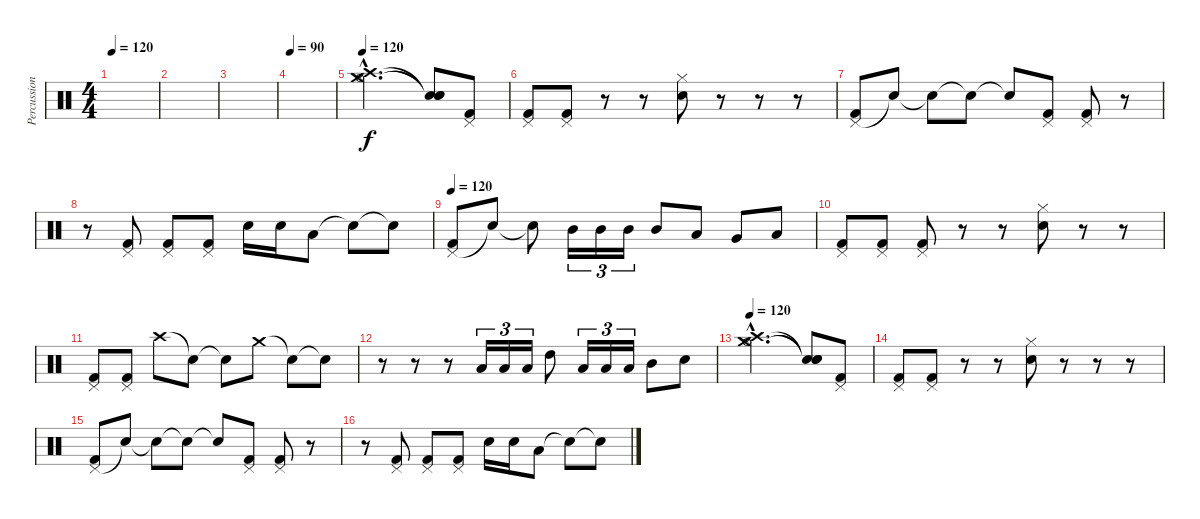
\track ("Percussion" "Percussion") {instrument percussion}
\staff {score}
\articulation defaults
\ts (4 4)
\tempo 120
\clef neutral
\ks c
|
|
|
\tempo 90
|
\tempo 120
("Crash medium (hit)"{hac} "Crash high (hit)"{hac} "Hi-Hat (open)"{hac}).2{d dy f volume 13 balance 8} ("Snare (hit)"{t} "Snare (hit)"{t} "Snare (hit)"{t}).8 ("Pedal Hi-Hat (hit)" "Kick (hit) 2").8 |
("Pedal Hi-Hat (hit)" "Kick (hit) 2").8 ("Pedal Hi-Hat (hit)" "Kick (hit) 2").8 r.8 r.8 ("Hi-Hat (closed)" "Snare (hit) 2").8 r.8 r.8 r.8 |
("Pedal Hi-Hat (hit)" "Kick (hit) 2").8 "Snare (hit)"{t}.8 "Snare (hit)"{t}.8 "Snare (hit)"{t}.8 "Snare (hit)"{t}.8 ("Pedal Hi-Hat (hit)" "Kick (hit) 2").8 ("Pedal Hi-Hat (hit)" "Kick (hit) 2").8 r.8 |
r.8 ("Pedal Hi-Hat (hit)" "Kick (hit) 2").8 ("Pedal Hi-Hat (hit)" "Kick (hit) 2").8 ("Pedal Hi-Hat (hit)" "Kick (hit) 2").8 "Snare (hit) 2".16 "Snare (hit) 2".16 "Low Tom (hit)".8 "Snare (hit)"{t}.8 "Snare (hit)"{t}.8 |
\tempo 120
("Pedal Hi-Hat (hit)" "Kick (hit) 2").8 "Snare (hit)"{t}.8 "Snare (hit)"{t}.8 "Mid Tom (hit)".16{tu (3 2)} "Mid Tom (hit)".16{tu (3 2)} "Mid Tom (hit)".16{tu (3 2)} "Mid Tom (hit)".8 "Low Tom (hit)".8 "Very Low Tom (hit)".8 "Low Floor Tom (hit)".8 |
("Pedal Hi-Hat (hit)" "Kick (hit) 2").8 ("Pedal Hi-Hat (hit)" "Kick (hit) 2").8 ("Pedal Hi-Hat (hit)" "Kick (hit) 2").8 r.8 r.8 ("Hi-Hat (closed)" "Snare (hit) 2").8 r.8 r.8 |
("Pedal Hi-Hat (hit)" "Kick (hit) 2").8 ("Pedal Hi-Hat (hit)" "Kick (hit) 2").8 "Crash high (hit)".8 "Snare (hit)"{t}.8 "Snare (hit)"{t}.8 "Crash medium (hit)".8 "Snare (hit)"{t}.8 "Snare (hit)"{t}.8 |
r.8 r.8 r.8 "Low Tom (hit)".16{tu (3 2)} "Low Tom (hit)".16{tu (3 2)} "Low Tom (hit)".16{tu (3 2)} "High Tom (hit)".8 "Low Tom (hit)".16{tu (3 2)} "Low Tom (hit)".16{tu (3 2)} "Low Tom (hit)".16{tu (3 2)} "Mid Tom (hit)".8 "Snare (hit) 2".8 |
\tempo 120
("Crash medium (hit)"{hac} "Crash high (hit)"{hac} "Hi-Hat (open)"{hac}).2{d volume 13 balance 8} ("Snare (hit)"{t} "Snare (hit)"{t} "Snare (hit)"{t}).8 ("Pedal Hi-Hat (hit)" "Kick (hit) 2").8 |
("Pedal Hi-Hat (hit)" "Kick (hit) 2").8 ("Pedal Hi-Hat (hit)" "Kick (hit) 2").8 r.8 r.8 ("Hi-Hat (closed)" "Snare (hit) 2").8 r.8 r.8 r.8 |
("Pedal Hi-Hat (hit)" "Kick (hit) 2").8 "Snare (hit)"{t}.8 "Snare (hit)"{t}.8 "Snare (hit)"{t}.8 "Snare (hit)"{t}.8 ("Pedal Hi-Hat (hit)" "Kick (hit) 2").8 ("Pedal Hi-Hat (hit)" "Kick (hit) 2").8 r.8 |
r.8 ("Pedal Hi-Hat (hit)" "Kick (hit) 2").8 ("Pedal Hi-Hat (hit)" "Kick (hit) 2").8 ("Pedal Hi-Hat (hit)" "Kick (hit) 2").8 "Snare (hit) 2".16 "Snare (hit) 2".16 "Low Tom (hit)".8 "Snare (hit)"{t}.8 "Snare (hit)"{t}.8
